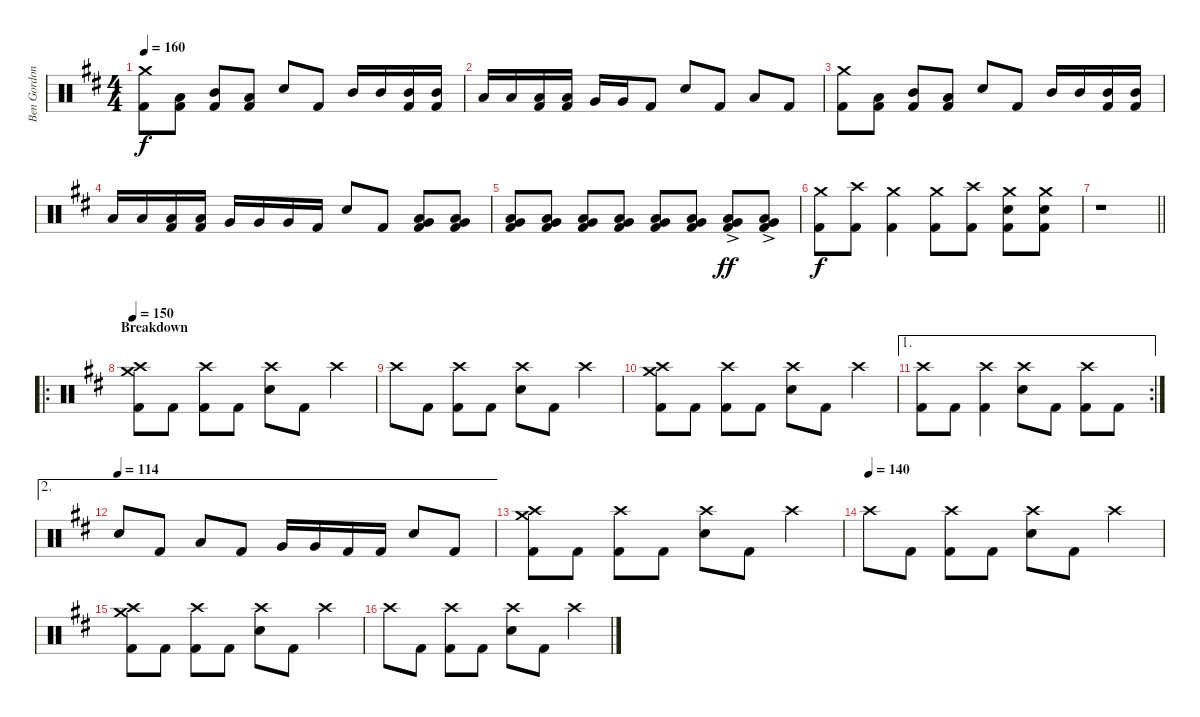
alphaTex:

\track ("Ben Gordon" "Ben Gordon") {instrument percussion}
\staff {score}
\articulation defaults
\ts (4 4)
\tempo 160
\clef neutral
\ks d
("Crash medium (hit)" "Kick (hit) 2").8{dy f} ("Low Tom (hit)" "Kick (hit) 2").8 ("Mid Tom (hit)" "Kick (hit) 2").8 ("Low Tom (hit)" "Kick (hit) 2").8 "Electric Snare (hit)".8 "Kick (hit) 2".8 "Mid Tom (hit)".16 "Mid Tom (hit)".16 ("Mid Tom (hit)" "Kick (hit) 2").16 ("Mid Tom (hit)" "Kick (hit) 2").16 |
"Low Tom (hit)".16 "Low Tom (hit)".16 ("Low Tom (hit)" "Kick (hit) 2").16 ("Low Tom (hit)" "Kick (hit) 2").16 "Very Low Tom (hit)".16 "Very Low Tom (hit)".16 "Kick (hit) 2".8 "Electric Snare (hit)".8 "Kick (hit) 2".8 "Low Tom (hit)".8 "Kick (hit) 2".8 |
("Crash medium (hit)" "Kick (hit) 2").8 ("Low Tom (hit)" "Kick (hit) 2").8 ("Mid Tom (hit)" "Kick (hit) 2").8 ("Low Tom (hit)" "Kick (hit) 2").8 "Electric Snare (hit)".8 "Kick (hit) 2".8 "Mid Tom (hit)".16 "Mid Tom (hit)".16 ("Mid Tom (hit)" "Kick (hit) 2").16 ("Mid Tom (hit)" "Kick (hit) 2").16 |
"Low Tom (hit)".16 "Low Tom (hit)".16 ("Low Tom (hit)" "Kick (hit) 2").16 ("Low Tom (hit)" "Kick (hit) 2").16 "Very Low Tom (hit)".16 "Very Low Tom (hit)".16 "Very Low Tom (hit)".16 "Kick (hit) 2".16 "Electric Snare (hit)".8 "Kick (hit) 2".8 ("Very Low Tom (hit)" "Low Floor Tom (hit)" "Kick (hit) 2").8{volume 8} ("Very Low Tom (hit)" "Low Floor Tom (hit)" "Kick (hit) 2").8{volume 14} |
("Very Low Tom (hit)" "Low Floor Tom (hit)" "Kick (hit) 2").8 ("Very Low Tom (hit)" "Low Floor Tom (hit)" "Kick (hit) 2").8 ("Very Low Tom (hit)" "Low Floor Tom (hit)" "Kick (hit) 2").8 ("Very Low Tom (hit)" "Low Floor Tom (hit)" "Kick (hit) 2").8 ("Very Low Tom (hit)" "Low Floor Tom (hit)" "Kick (hit) 2").8 ("Very Low Tom (hit)" "Low Floor Tom (hit)" "Kick (hit) 2").8 ("Very Low Tom (hit)"{ac} "Low Floor Tom (hit)"{ac} "Kick (hit) 2"{ac}).8{dy ff} ("Very Low Tom (hit)"{ac} "Low Floor Tom (hit)"{ac} "Kick (hit) 2"{ac}).8 |
("Crash medium (hit)" "Kick (hit) 2").8{dy f} ("Crash high (hit)" "Kick (hit) 2").8 ("Crash medium (hit)" "Kick (hit) 2").4 ("Crash medium (hit)" "Kick (hit) 2").8 ("Crash high (hit)" "Kick (hit) 2").8 ("Crash medium (hit)" "Electric Snare (hit)" "Kick (hit) 2").8 ("Crash medium (hit)" "Electric Snare (hit)" "Kick (hit) 2").8 |
\barLineRight lightlight
r.1{volume 0} |
\ro
\section ("" "Breakdown")
\tempo 150
("Crash medium (hit)" "Crash high (hit)" "Kick (hit) 2").8{volume 14} "Kick (hit) 2".8 ("Crash high (hit)" "Kick (hit) 2").8 "Kick (hit) 2".8 ("Crash high (hit)" "Electric Snare (hit)").8 "Kick (hit) 2".8 "Crash high (hit)".4 |
"Crash high (hit)".8 "Kick (hit) 2".8 ("Crash high (hit)" "Kick (hit) 2").8 "Kick (hit) 2".8 ("Crash high (hit)" "Electric Snare (hit)").8 "Kick (hit) 2".8 "Crash high (hit)".4 |
("Crash medium (hit)" "Crash high (hit)" "Kick (hit) 2").8 "Kick (hit) 2".8 ("Crash high (hit)" "Kick (hit) 2").8 "Kick (hit) 2".8 ("Crash high (hit)" "Electric Snare (hit)").8 "Kick (hit) 2".8 "Crash high (hit)".4 |
\ae 1
\rc 2
("Crash high (hit)" "Kick (hit) 2").8 "Kick (hit) 2".8 ("Crash high (hit)" "Kick (hit) 2").4 ("Crash high (hit)" "Electric Snare (hit)").8 "Kick (hit) 2".8 ("Crash high (hit)" "Kick (hit) 2").8 "Kick (hit) 2".8 |
\ae 2
\tempo (114)
"Electric Snare (hit)".8 "Kick (hit) 2".8 "Low Tom (hit)".8 "Kick (hit) 2".8 "Very Low Tom (hit)".16 "Very Low Tom (hit)".16 "Kick (hit) 2".16 "Kick (hit) 2".16 "Electric Snare (hit)".8 "Kick (hit) 2".8 |
("Crash medium (hit)" "Crash high (hit)" "Kick (hit) 2").8 "Kick (hit) 2".8 ("Crash high (hit)" "Kick (hit) 2").8 "Kick (hit) 2".8 ("Crash high (hit)" "Electric Snare (hit)").8 "Kick (hit) 2".8 "Crash high (hit)".4 |
\tempo (140)
"Crash high (hit)".8 "Kick (hit) 2".8 ("Crash high (hit)" "Kick (hit) 2").8 "Kick (hit) 2".8 ("Crash high (hit)" "Electric Snare (hit)").8 "Kick (hit) 2".8 "Crash high (hit)".4 |
("Crash medium (hit)" "Crash high (hit)" "Kick (hit) 2").8 "Kick (hit) 2".8 ("Crash high (hit)" "Kick (hit) 2").8 "Kick (hit) 2".8 ("Crash high (hit)" "Electric Snare (hit)").8 "Kick (hit) 2".8 "Crash high (hit)".4 |
"Crash high (hit)".8 "Kick (hit) 2".8 ("Crash high (hit)" "Kick (hit) 2").8 "Kick (hit) 2".8 ("Crash high (hit)" "Electric Snare (hit)").8 "Kick (hit) 2".8 "Crash high (hit)".4
